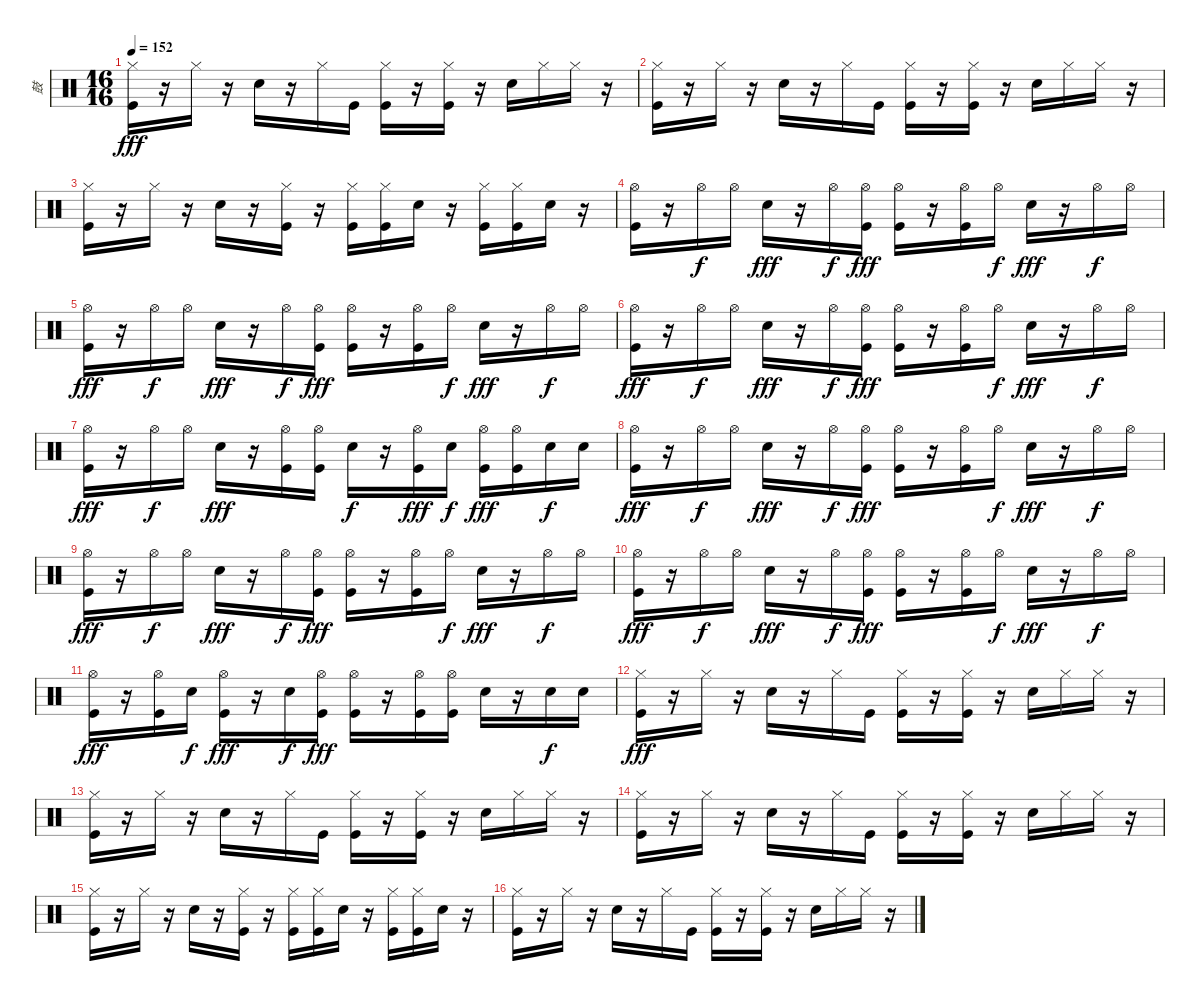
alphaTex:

\track ("鼓" "鼓") {instrument percussion}
\staff {score}
\articulation defaults
\ts (16 16)
\tempo 152
\clef neutral
\ks c
("Kick (hit)" "Hi-Hat (closed)").16{dy fff} r.16 "Hi-Hat (closed)".16 r.16 "Snare (hit) 2".16 r.16 "Hi-Hat (closed)".16 "Kick (hit)".16 ("Hi-Hat (closed)" "Kick (hit)").16 r.16 ("Hi-Hat (closed)" "Kick (hit)").16 r.16 "Snare (hit) 2".16 "Hi-Hat (closed)".16 "Hi-Hat (closed)".16 r.16 |
("Kick (hit)" "Hi-Hat (closed)").16 r.16 "Hi-Hat (closed)".16 r.16 "Snare (hit) 2".16 r.16 "Hi-Hat (closed)".16 "Kick (hit)".16 ("Hi-Hat (closed)" "Kick (hit)").16 r.16 ("Hi-Hat (closed)" "Kick (hit)").16 r.16 "Snare (hit) 2".16 "Hi-Hat (closed)".16 "Hi-Hat (closed)".16 r.16 |
("Kick (hit)" "Hi-Hat (closed)").16 r.16 "Hi-Hat (closed)".16 r.16 "Snare (hit) 2".16 r.16 ("Hi-Hat (closed)" "Kick (hit)").16 r.16 ("Hi-Hat (closed)" "Kick (hit)").16 ("Hi-Hat (closed)" "Kick (hit)").16 "Snare (hit) 2".16 r.16 ("Hi-Hat (closed)" "Kick (hit)").16 ("Hi-Hat (closed)" "Kick (hit)").16 "Snare (hit) 2".16 r.16 |
("Kick (hit)" "Hi-Hat (open)").16 r.16 "Hi-Hat (open)".16{dy f} "Hi-Hat (open)".16 "Snare (hit) 2".16{dy fff} r.16 "Hi-Hat (open)".16{dy f} ("Kick (hit)" "Hi-Hat (open)").16{dy fff} ("Kick (hit)" "Hi-Hat (open)").16 r.16 ("Kick (hit)" "Hi-Hat (open)").16 "Hi-Hat (open)".16{dy f} "Snare (hit) 2".16{dy fff} r.16 "Hi-Hat (open)".16{dy f} "Hi-Hat (open)".16 |
("Kick (hit)" "Hi-Hat (open)").16{dy fff} r.16 "Hi-Hat (open)".16{dy f} "Hi-Hat (open)".16 "Snare (hit) 2".16{dy fff} r.16 "Hi-Hat (open)".16{dy f} ("Kick (hit)" "Hi-Hat (open)").16{dy fff} ("Kick (hit)" "Hi-Hat (open)").16 r.16 ("Kick (hit)" "Hi-Hat (open)").16 "Hi-Hat (open)".16{dy f} "Snare (hit) 2".16{dy fff} r.16 "Hi-Hat (open)".16{dy f} "Hi-Hat (open)".16 |
("Kick (hit)" "Hi-Hat (open)").16{dy fff} r.16 "Hi-Hat (open)".16{dy f} "Hi-Hat (open)".16 "Snare (hit) 2".16{dy fff} r.16 "Hi-Hat (open)".16{dy f} ("Kick (hit)" "Hi-Hat (open)").16{dy fff} ("Kick (hit)" "Hi-Hat (open)").16 r.16 ("Kick (hit)" "Hi-Hat (open)").16 "Hi-Hat (open)".16{dy f} "Snare (hit) 2".16{dy fff} r.16 "Hi-Hat (open)".16{dy f} "Hi-Hat (open)".16 |
("Kick (hit)" "Hi-Hat (open)").16{dy fff} r.16 "Hi-Hat (open)".16{dy f} "Hi-Hat (open)".16 "Snare (hit) 2".16{dy fff} r.16 ("Hi-Hat (open)" "Kick (hit)").16 ("Hi-Hat (open)" "Kick (hit)").16 "Snare (hit) 2".16{dy f} r.16 ("Hi-Hat (open)" "Kick (hit)").16{dy fff} "Snare (hit) 2".16{dy f} ("Hi-Hat (open)" "Kick (hit)").16{dy fff} ("Hi-Hat (open)" "Kick (hit)").16 "Snare (hit) 2".16{dy f} "Snare (hit) 2".16 |
("Kick (hit)" "Hi-Hat (open)").16{dy fff} r.16 "Hi-Hat (open)".16{dy f} "Hi-Hat (open)".16 "Snare (hit) 2".16{dy fff} r.16 "Hi-Hat (open)".16{dy f} ("Kick (hit)" "Hi-Hat (open)").16{dy fff} ("Kick (hit)" "Hi-Hat (open)").16 r.16 ("Kick (hit)" "Hi-Hat (open)").16 "Hi-Hat (open)".16{dy f} "Snare (hit) 2".16{dy fff} r.16 "Hi-Hat (open)".16{dy f} "Hi-Hat (open)".16 |
("Kick (hit)" "Hi-Hat (open)").16{dy fff} r.16 "Hi-Hat (open)".16{dy f} "Hi-Hat (open)".16 "Snare (hit) 2".16{dy fff} r.16 "Hi-Hat (open)".16{dy f} ("Kick (hit)" "Hi-Hat (open)").16{dy fff} ("Kick (hit)" "Hi-Hat (open)").16 r.16 ("Kick (hit)" "Hi-Hat (open)").16 "Hi-Hat (open)".16{dy f} "Snare (hit) 2".16{dy fff} r.16 "Hi-Hat (open)".16{dy f} "Hi-Hat (open)".16 |
("Kick (hit)" "Hi-Hat (open)").16{dy fff} r.16 "Hi-Hat (open)".16{dy f} "Hi-Hat (open)".16 "Snare (hit) 2".16{dy fff} r.16 "Hi-Hat (open)".16{dy f} ("Kick (hit)" "Hi-Hat (open)").16{dy fff} ("Kick (hit)" "Hi-Hat (open)").16 r.16 ("Kick (hit)" "Hi-Hat (open)").16 "Hi-Hat (open)".16{dy f} "Snare (hit) 2".16{dy fff} r.16 "Hi-Hat (open)".16{dy f} "Hi-Hat (open)".16 |
("Kick (hit)" "Hi-Hat (open)").16{dy fff} r.16 ("Hi-Hat (open)" "Kick (hit)").16 "Snare (hit) 2".16{dy f} ("Hi-Hat (open)" "Kick (hit)").16{dy fff} r.16 "Snare (hit) 2".16{dy f} ("Hi-Hat (open)" "Kick (hit)").16{dy fff} ("Hi-Hat (open)" "Kick (hit)").16 r.16 ("Hi-Hat (open)" "Kick (hit)").16 ("Hi-Hat (open)" "Kick (hit)").16 "Snare (hit) 2".16 r.16 "Snare (hit) 2".16{dy f} "Snare (hit) 2".16 |
("Kick (hit)" "Hi-Hat (closed)").16{dy fff} r.16 "Hi-Hat (closed)".16 r.16 "Snare (hit) 2".16 r.16 "Hi-Hat (closed)".16 "Kick (hit)".16 ("Hi-Hat (closed)" "Kick (hit)").16 r.16 ("Hi-Hat (closed)" "Kick (hit)").16 r.16 "Snare (hit) 2".16 "Hi-Hat (closed)".16 "Hi-Hat (closed)".16 r.16 |
("Kick (hit)" "Hi-Hat (closed)").16 r.16 "Hi-Hat (closed)".16 r.16 "Snare (hit) 2".16 r.16 "Hi-Hat (closed)".16 "Kick (hit)".16 ("Hi-Hat (closed)" "Kick (hit)").16 r.16 ("Hi-Hat (closed)" "Kick (hit)").16 r.16 "Snare (hit) 2".16 "Hi-Hat (closed)".16 "Hi-Hat (closed)".16 r.16 |
("Kick (hit)" "Hi-Hat (closed)").16 r.16 "Hi-Hat (closed)".16 r.16 "Snare (hit) 2".16 r.16 "Hi-Hat (closed)".16 "Kick (hit)".16 ("Hi-Hat (closed)" "Kick (hit)").16 r.16 ("Hi-Hat (closed)" "Kick (hit)").16 r.16 "Snare (hit) 2".16 "Hi-Hat (closed)".16 "Hi-Hat (closed)".16 r.16 |
("Kick (hit)" "Hi-Hat (closed)").16 r.16 "Hi-Hat (closed)".16 r.16 "Snare (hit) 2".16 r.16 ("Hi-Hat (closed)" "Kick (hit)").16 r.16 ("Hi-Hat (closed)" "Kick (hit)").16 ("Hi-Hat (closed)" "Kick (hit)").16 "Snare (hit) 2".16 r.16 ("Hi-Hat (closed)" "Kick (hit)").16 ("Hi-Hat (closed)" "Kick (hit)").16 "Snare (hit) 2".16 r.16 |
("Kick (hit)" "Hi-Hat (closed)").16 r.16 "Hi-Hat (closed)".16 r.16 "Snare (hit) 2".16 r.16 "Hi-Hat (closed)".16 "Kick (hit)".16 ("Hi-Hat (closed)" "Kick (hit)").16 r.16 ("Hi-Hat (closed)" "Kick (hit)").16 r.16 "Snare (hit) 2".16 "Hi-Hat (closed)".16 "Hi-Hat (closed)".16 r.16
